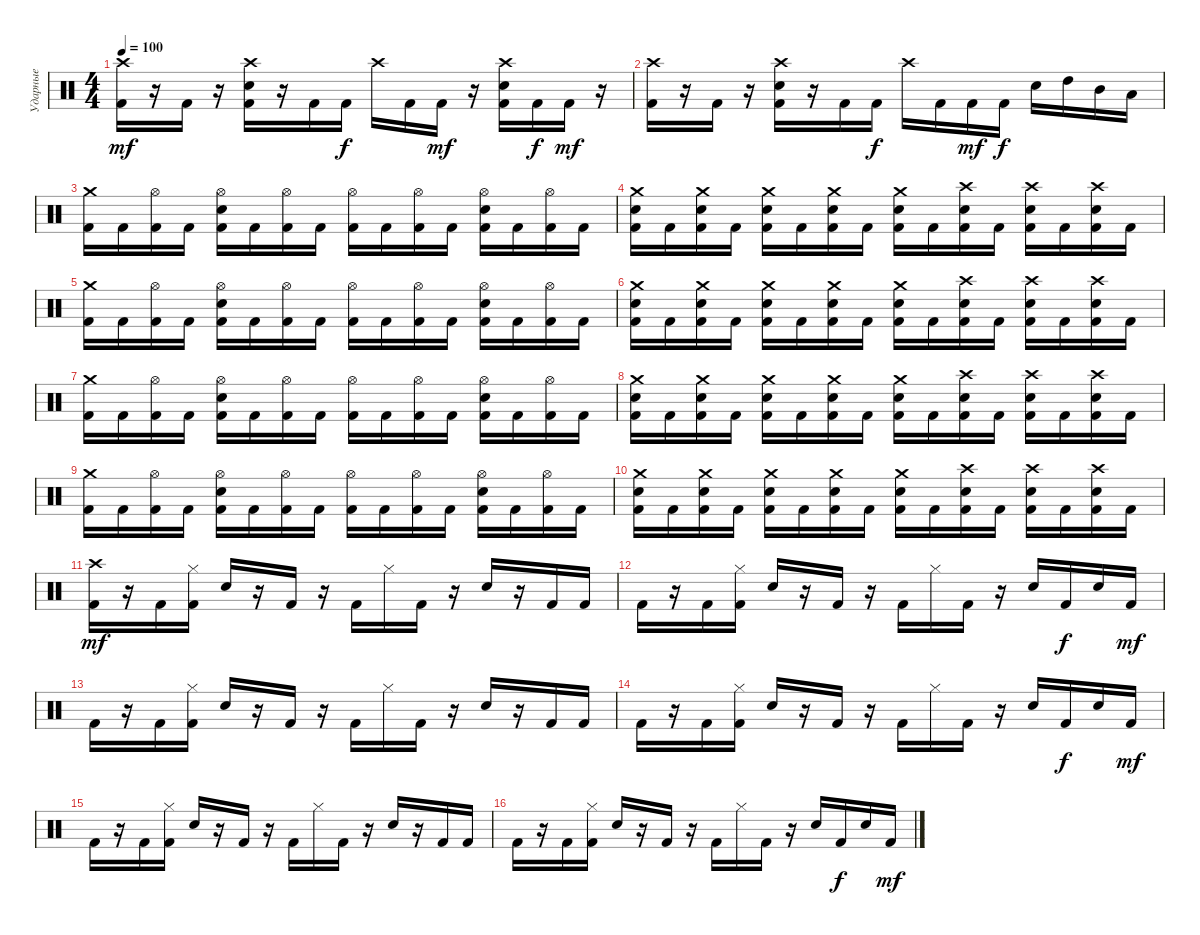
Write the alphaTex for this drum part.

\track ("Ударные" "Ударные") {instrument percussion}
\staff {score}
\articulation defaults
\ts (4 4)
\tempo 100
\clef neutral
\ks c
("Crash high (hit)" "Kick (hit) 2").16{dy mf} r.16 "Kick (hit) 2".16 r.16 ("Crash high (hit)" "Electric Snare (hit)" "Kick (hit) 2").16 r.16 "Kick (hit) 2".16 "Kick (hit) 2".16{dy f} "Crash high (hit)".16 "Kick (hit) 2".16 "Kick (hit) 2".16{dy mf} r.16 ("Crash high (hit)" "Electric Snare (hit)" "Kick (hit) 2").16 "Kick (hit) 2".16{dy f} "Kick (hit) 2".16{dy mf} r.16 |
("Crash high (hit)" "Kick (hit) 2").16 r.16 "Kick (hit) 2".16 r.16 ("Crash high (hit)" "Electric Snare (hit)" "Kick (hit) 2").16 r.16 "Kick (hit) 2".16 "Kick (hit) 2".16{dy f} "Crash high (hit)".16 "Kick (hit) 2".16 "Kick (hit) 2".16{dy mf} "Kick (hit) 2".16{dy f} "Electric Snare (hit)".16 "High Tom (hit)".16 "Mid Tom (hit)".16 "Low Tom (hit)".16 |
("Crash medium (hit)" "Kick (hit) 2").16 "Kick (hit) 2".16 ("Hi-Hat (open)" "Kick (hit) 2").16 "Kick (hit) 2".16 ("Hi-Hat (open)" "Electric Snare (hit)" "Kick (hit) 2").16 "Kick (hit) 2".16 ("Hi-Hat (open)" "Kick (hit) 2").16 "Kick (hit) 2".16 ("Hi-Hat (open)" "Kick (hit) 2").16 "Kick (hit) 2".16 ("Hi-Hat (open)" "Kick (hit) 2").16 "Kick (hit) 2".16 ("Hi-Hat (open)" "Electric Snare (hit)" "Kick (hit) 2").16 "Kick (hit) 2".16 ("Hi-Hat (open)" "Kick (hit) 2").16 "Kick (hit) 2".16 |
("Crash medium (hit)" "Electric Snare (hit)" "Kick (hit) 2").16 "Kick (hit) 2".16 ("Crash medium (hit)" "Electric Snare (hit)" "Kick (hit) 2").16 "Kick (hit) 2".16 ("Crash medium (hit)" "Electric Snare (hit)" "Kick (hit) 2").16 "Kick (hit) 2".16 ("Crash medium (hit)" "Electric Snare (hit)" "Kick (hit) 2").16 "Kick (hit) 2".16 ("Crash medium (hit)" "Electric Snare (hit)" "Kick (hit) 2").16 "Kick (hit) 2".16 ("Crash high (hit)" "Electric Snare (hit)" "Kick (hit) 2").16 "Kick (hit) 2".16 ("Crash high (hit)" "Electric Snare (hit)" "Kick (hit) 2").16 "Kick (hit) 2".16 ("Crash high (hit)" "Electric Snare (hit)" "Kick (hit) 2").16 "Kick (hit) 2".16 |
("Crash medium (hit)" "Kick (hit) 2").16 "Kick (hit) 2".16 ("Hi-Hat (open)" "Kick (hit) 2").16 "Kick (hit) 2".16 ("Hi-Hat (open)" "Electric Snare (hit)" "Kick (hit) 2").16 "Kick (hit) 2".16 ("Hi-Hat (open)" "Kick (hit) 2").16 "Kick (hit) 2".16 ("Hi-Hat (open)" "Kick (hit) 2").16 "Kick (hit) 2".16 ("Hi-Hat (open)" "Kick (hit) 2").16 "Kick (hit) 2".16 ("Hi-Hat (open)" "Electric Snare (hit)" "Kick (hit) 2").16 "Kick (hit) 2".16 ("Hi-Hat (open)" "Kick (hit) 2").16 "Kick (hit) 2".16 |
("Crash medium (hit)" "Electric Snare (hit)" "Kick (hit) 2").16 "Kick (hit) 2".16 ("Crash medium (hit)" "Electric Snare (hit)" "Kick (hit) 2").16 "Kick (hit) 2".16 ("Crash medium (hit)" "Electric Snare (hit)" "Kick (hit) 2").16 "Kick (hit) 2".16 ("Crash medium (hit)" "Electric Snare (hit)" "Kick (hit) 2").16 "Kick (hit) 2".16 ("Crash medium (hit)" "Electric Snare (hit)" "Kick (hit) 2").16 "Kick (hit) 2".16 ("Crash high (hit)" "Electric Snare (hit)" "Kick (hit) 2").16 "Kick (hit) 2".16 ("Crash high (hit)" "Electric Snare (hit)" "Kick (hit) 2").16 "Kick (hit) 2".16 ("Crash high (hit)" "Electric Snare (hit)" "Kick (hit) 2").16 "Kick (hit) 2".16 |
("Crash medium (hit)" "Kick (hit) 2").16 "Kick (hit) 2".16 ("Hi-Hat (open)" "Kick (hit) 2").16 "Kick (hit) 2".16 ("Hi-Hat (open)" "Electric Snare (hit)" "Kick (hit) 2").16 "Kick (hit) 2".16 ("Hi-Hat (open)" "Kick (hit) 2").16 "Kick (hit) 2".16 ("Hi-Hat (open)" "Kick (hit) 2").16 "Kick (hit) 2".16 ("Hi-Hat (open)" "Kick (hit) 2").16 "Kick (hit) 2".16 ("Hi-Hat (open)" "Electric Snare (hit)" "Kick (hit) 2").16 "Kick (hit) 2".16 ("Hi-Hat (open)" "Kick (hit) 2").16 "Kick (hit) 2".16 |
("Crash medium (hit)" "Electric Snare (hit)" "Kick (hit) 2").16 "Kick (hit) 2".16 ("Crash medium (hit)" "Electric Snare (hit)" "Kick (hit) 2").16 "Kick (hit) 2".16 ("Crash medium (hit)" "Electric Snare (hit)" "Kick (hit) 2").16 "Kick (hit) 2".16 ("Crash medium (hit)" "Electric Snare (hit)" "Kick (hit) 2").16 "Kick (hit) 2".16 ("Crash medium (hit)" "Electric Snare (hit)" "Kick (hit) 2").16 "Kick (hit) 2".16 ("Crash high (hit)" "Electric Snare (hit)" "Kick (hit) 2").16 "Kick (hit) 2".16 ("Crash high (hit)" "Electric Snare (hit)" "Kick (hit) 2").16 "Kick (hit) 2".16 ("Crash high (hit)" "Electric Snare (hit)" "Kick (hit) 2").16 "Kick (hit) 2".16 |
("Crash medium (hit)" "Kick (hit) 2").16 "Kick (hit) 2".16 ("Hi-Hat (open)" "Kick (hit) 2").16 "Kick (hit) 2".16 ("Hi-Hat (open)" "Electric Snare (hit)" "Kick (hit) 2").16 "Kick (hit) 2".16 ("Hi-Hat (open)" "Kick (hit) 2").16 "Kick (hit) 2".16 ("Hi-Hat (open)" "Kick (hit) 2").16 "Kick (hit) 2".16 ("Hi-Hat (open)" "Kick (hit) 2").16 "Kick (hit) 2".16 ("Hi-Hat (open)" "Electric Snare (hit)" "Kick (hit) 2").16 "Kick (hit) 2".16 ("Hi-Hat (open)" "Kick (hit) 2").16 "Kick (hit) 2".16 |
("Crash medium (hit)" "Electric Snare (hit)" "Kick (hit) 2").16 "Kick (hit) 2".16 ("Crash medium (hit)" "Electric Snare (hit)" "Kick (hit) 2").16 "Kick (hit) 2".16 ("Crash medium (hit)" "Electric Snare (hit)" "Kick (hit) 2").16 "Kick (hit) 2".16 ("Crash medium (hit)" "Electric Snare (hit)" "Kick (hit) 2").16 "Kick (hit) 2".16 ("Crash medium (hit)" "Electric Snare (hit)" "Kick (hit) 2").16 "Kick (hit) 2".16 ("Crash high (hit)" "Electric Snare (hit)" "Kick (hit) 2").16 "Kick (hit) 2".16 ("Crash high (hit)" "Electric Snare (hit)" "Kick (hit) 2").16 "Kick (hit) 2".16 ("Crash high (hit)" "Electric Snare (hit)" "Kick (hit) 2").16 "Kick (hit) 2".16 |
("Crash high (hit)" "Kick (hit) 2").16{dy mf} r.16 "Kick (hit) 2".16 ("Hi-Hat (closed)" "Kick (hit) 2").16 "Electric Snare (hit)".16 r.16 "Kick (hit) 2".16 r.16 "Kick (hit) 2".16 "Hi-Hat (closed)".16 "Kick (hit) 2".16 r.16 "Electric Snare (hit)".16 r.16 "Kick (hit) 2".16 "Kick (hit) 2".16 |
"Kick (hit) 2".16 r.16 "Kick (hit) 2".16 ("Hi-Hat (closed)" "Kick (hit) 2").16 "Electric Snare (hit)".16 r.16 "Kick (hit) 2".16 r.16 "Kick (hit) 2".16 "Hi-Hat (closed)".16 "Kick (hit) 2".16 r.16 "Electric Snare (hit)".16 "Kick (hit) 2".16{dy f} "Electric Snare (hit)".16 "Kick (hit) 2".16{dy mf} |
"Kick (hit) 2".16 r.16 "Kick (hit) 2".16 ("Hi-Hat (closed)" "Kick (hit) 2").16 "Electric Snare (hit)".16 r.16 "Kick (hit) 2".16 r.16 "Kick (hit) 2".16 "Hi-Hat (closed)".16 "Kick (hit) 2".16 r.16 "Electric Snare (hit)".16 r.16 "Kick (hit) 2".16 "Kick (hit) 2".16 |
"Kick (hit) 2".16 r.16 "Kick (hit) 2".16 ("Hi-Hat (closed)" "Kick (hit) 2").16 "Electric Snare (hit)".16 r.16 "Kick (hit) 2".16 r.16 "Kick (hit) 2".16 "Hi-Hat (closed)".16 "Kick (hit) 2".16 r.16 "Electric Snare (hit)".16 "Kick (hit) 2".16{dy f} "Electric Snare (hit)".16 "Kick (hit) 2".16{dy mf} |
"Kick (hit) 2".16 r.16 "Kick (hit) 2".16 ("Hi-Hat (closed)" "Kick (hit) 2").16 "Electric Snare (hit)".16 r.16 "Kick (hit) 2".16 r.16 "Kick (hit) 2".16 "Hi-Hat (closed)".16 "Kick (hit) 2".16 r.16 "Electric Snare (hit)".16 r.16 "Kick (hit) 2".16 "Kick (hit) 2".16 |
"Kick (hit) 2".16 r.16 "Kick (hit) 2".16 ("Hi-Hat (closed)" "Kick (hit) 2").16 "Electric Snare (hit)".16 r.16 "Kick (hit) 2".16 r.16 "Kick (hit) 2".16 "Hi-Hat (closed)".16 "Kick (hit) 2".16 r.16 "Electric Snare (hit)".16 "Kick (hit) 2".16{dy f} "Electric Snare (hit)".16 "Kick (hit) 2".16{dy mf}
